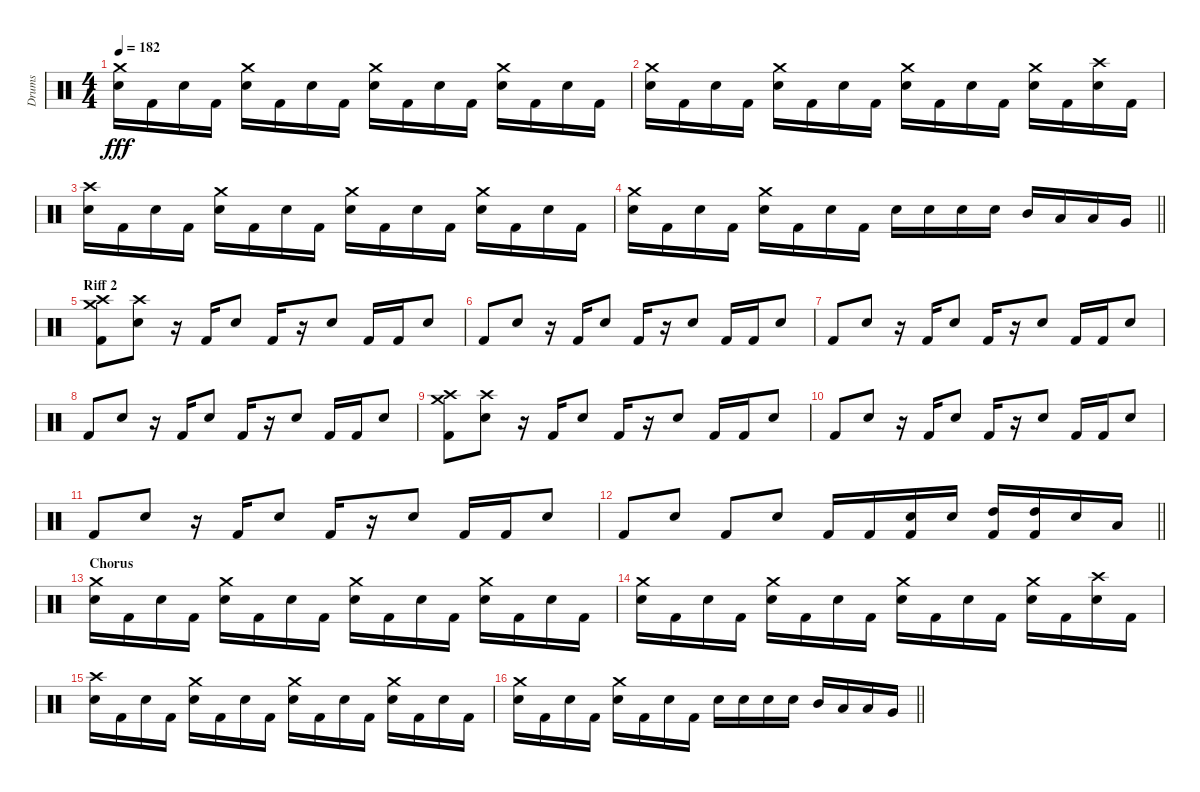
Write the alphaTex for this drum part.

\track ("Drums" "Drums") {instrument percussion}
\staff {score}
\articulation defaults
\ts (4 4)
\tempo 182
\clef neutral
\ks c
("Crash medium (hit)" "Snare (hit) 2").16{dy fff} "Kick (hit) 2".16 "Snare (hit) 2".16 "Kick (hit) 2".16 ("Crash medium (hit)" "Snare (hit) 2").16 "Kick (hit) 2".16 "Snare (hit) 2".16 "Kick (hit) 2".16 ("Crash medium (hit)" "Snare (hit) 2").16 "Kick (hit) 2".16 "Snare (hit) 2".16 "Kick (hit) 2".16 ("Crash medium (hit)" "Snare (hit) 2").16 "Kick (hit) 2".16 "Snare (hit) 2".16 "Kick (hit) 2".16 |
("Crash medium (hit)" "Snare (hit) 2").16 "Kick (hit) 2".16 "Snare (hit) 2".16 "Kick (hit) 2".16 ("Crash medium (hit)" "Snare (hit) 2").16 "Kick (hit) 2".16 "Snare (hit) 2".16 "Kick (hit) 2".16 ("Crash medium (hit)" "Snare (hit) 2").16 "Kick (hit) 2".16 "Snare (hit) 2".16 "Kick (hit) 2".16 ("Crash medium (hit)" "Snare (hit) 2").16 "Kick (hit) 2".16 ("Crash high (hit)" "Snare (hit) 2").16 "Kick (hit) 2".16 |
("Crash high (hit)" "Snare (hit) 2").16 "Kick (hit) 2".16 "Snare (hit) 2".16 "Kick (hit) 2".16 ("Crash medium (hit)" "Snare (hit) 2").16 "Kick (hit) 2".16 "Snare (hit) 2".16 "Kick (hit) 2".16 ("Crash medium (hit)" "Snare (hit) 2").16 "Kick (hit) 2".16 "Snare (hit) 2".16 "Kick (hit) 2".16 ("Crash medium (hit)" "Snare (hit) 2").16 "Kick (hit) 2".16 "Snare (hit) 2".16 "Kick (hit) 2".16 |
\barLineRight lightlight
("Crash medium (hit)" "Snare (hit) 2").16 "Kick (hit) 2".16 "Snare (hit) 2".16 "Kick (hit) 2".16 ("Crash medium (hit)" "Snare (hit) 2").16 "Kick (hit) 2".16 "Snare (hit) 2".16 "Kick (hit) 2".16 "Snare (hit) 2".16 "Snare (hit) 2".16 "Snare (hit) 2".16 "Snare (hit) 2".16 "Mid Tom (hit)".16 "Low Tom (hit)".16 "Low Tom (hit)".16 "Very Low Tom (hit)".16 |
\section ("" "Riff 2")
("Crash high (hit)" "Crash medium (hit)" "Kick (hit) 2").8 ("Crash high (hit)" "Snare (hit) 2").8 r.16 "Kick (hit) 2".16 "Snare (hit) 2".8 "Kick (hit) 2".16 r.16 "Snare (hit) 2".8 "Kick (hit) 2".16 "Kick (hit) 2".16 "Snare (hit) 2".8 |
"Kick (hit) 2".8 "Snare (hit) 2".8 r.16 "Kick (hit) 2".16 "Snare (hit) 2".8 "Kick (hit) 2".16 r.16 "Snare (hit) 2".8 "Kick (hit) 2".16 "Kick (hit) 2".16 "Snare (hit) 2".8 |
"Kick (hit) 2".8 "Snare (hit) 2".8 r.16 "Kick (hit) 2".16 "Snare (hit) 2".8 "Kick (hit) 2".16 r.16 "Snare (hit) 2".8 "Kick (hit) 2".16 "Kick (hit) 2".16 "Snare (hit) 2".8 |
"Kick (hit) 2".8 "Snare (hit) 2".8 r.16 "Kick (hit) 2".16 "Snare (hit) 2".8 "Kick (hit) 2".16 r.16 "Snare (hit) 2".8 "Kick (hit) 2".16 "Kick (hit) 2".16 "Snare (hit) 2".8 |
("Crash high (hit)" "Crash medium (hit)" "Kick (hit) 2").8 ("Crash high (hit)" "Snare (hit) 2").8 r.16 "Kick (hit) 2".16 "Snare (hit) 2".8 "Kick (hit) 2".16 r.16 "Snare (hit) 2".8 "Kick (hit) 2".16 "Kick (hit) 2".16 "Snare (hit) 2".8 |
"Kick (hit) 2".8 "Snare (hit) 2".8 r.16 "Kick (hit) 2".16 "Snare (hit) 2".8 "Kick (hit) 2".16 r.16 "Snare (hit) 2".8 "Kick (hit) 2".16 "Kick (hit) 2".16 "Snare (hit) 2".8 |
"Kick (hit) 2".8 "Snare (hit) 2".8 r.16 "Kick (hit) 2".16 "Snare (hit) 2".8 "Kick (hit) 2".16 r.16 "Snare (hit) 2".8 "Kick (hit) 2".16 "Kick (hit) 2".16 "Snare (hit) 2".8 |
\barLineRight lightlight "Kick (hit) 2".8 "Snare (hit) 2".8 "Kick (hit) 2".8 "Snare (hit) 2".8 "Kick (hit) 2".16 "Kick (hit) 2".16
("Kick (hit) 2" "Snare (hit) 2").16 "Snare (hit) 2".16 ("Kick (hit) 2" "High Tom (hit)").16 ("Kick (hit) 2" "High Tom (hit)").16 "Snare (hit) 2".16 "Low Tom (hit)".16 |
\section ("" "Chorus")
("Crash medium (hit)" "Snare (hit) 2").16 "Kick (hit) 2".16 "Snare (hit) 2".16 "Kick (hit) 2".16 ("Crash medium (hit)" "Snare (hit) 2").16 "Kick (hit) 2".16 "Snare (hit) 2".16 "Kick (hit) 2".16 ("Crash medium (hit)" "Snare (hit) 2").16 "Kick (hit) 2".16 "Snare (hit) 2".16 "Kick (hit) 2".16 ("Crash medium (hit)" "Snare (hit) 2").16 "Kick (hit) 2".16 "Snare (hit) 2".16 "Kick (hit) 2".16 |
("Crash medium (hit)" "Snare (hit) 2").16 "Kick (hit) 2".16 "Snare (hit) 2".16 "Kick (hit) 2".16 ("Crash medium (hit)" "Snare (hit) 2").16 "Kick (hit) 2".16 "Snare (hit) 2".16 "Kick (hit) 2".16 ("Crash medium (hit)" "Snare (hit) 2").16 "Kick (hit) 2".16 "Snare (hit) 2".16 "Kick (hit) 2".16 ("Crash medium (hit)" "Snare (hit) 2").16 "Kick (hit) 2".16 ("Crash high (hit)" "Snare (hit) 2").16 "Kick (hit) 2".16 |
("Crash high (hit)" "Snare (hit) 2").16 "Kick (hit) 2".16 "Snare (hit) 2".16 "Kick (hit) 2".16 ("Crash medium (hit)" "Snare (hit) 2").16 "Kick (hit) 2".16 "Snare (hit) 2".16 "Kick (hit) 2".16 ("Crash medium (hit)" "Snare (hit) 2").16 "Kick (hit) 2".16 "Snare (hit) 2".16 "Kick (hit) 2".16 ("Crash medium (hit)" "Snare (hit) 2").16 "Kick (hit) 2".16 "Snare (hit) 2".16 "Kick (hit) 2".16 |
\barLineRight lightlight
("Crash medium (hit)" "Snare (hit) 2").16 "Kick (hit) 2".16 "Snare (hit) 2".16 "Kick (hit) 2".16 ("Crash medium (hit)" "Snare (hit) 2").16 "Kick (hit) 2".16 "Snare (hit) 2".16 "Kick (hit) 2".16 "Snare (hit) 2".16 "Snare (hit) 2".16 "Snare (hit) 2".16 "Snare (hit) 2".16 "Mid Tom (hit)".16 "Low Tom (hit)".16 "Low Tom (hit)".16 "Very Low Tom (hit)".16
